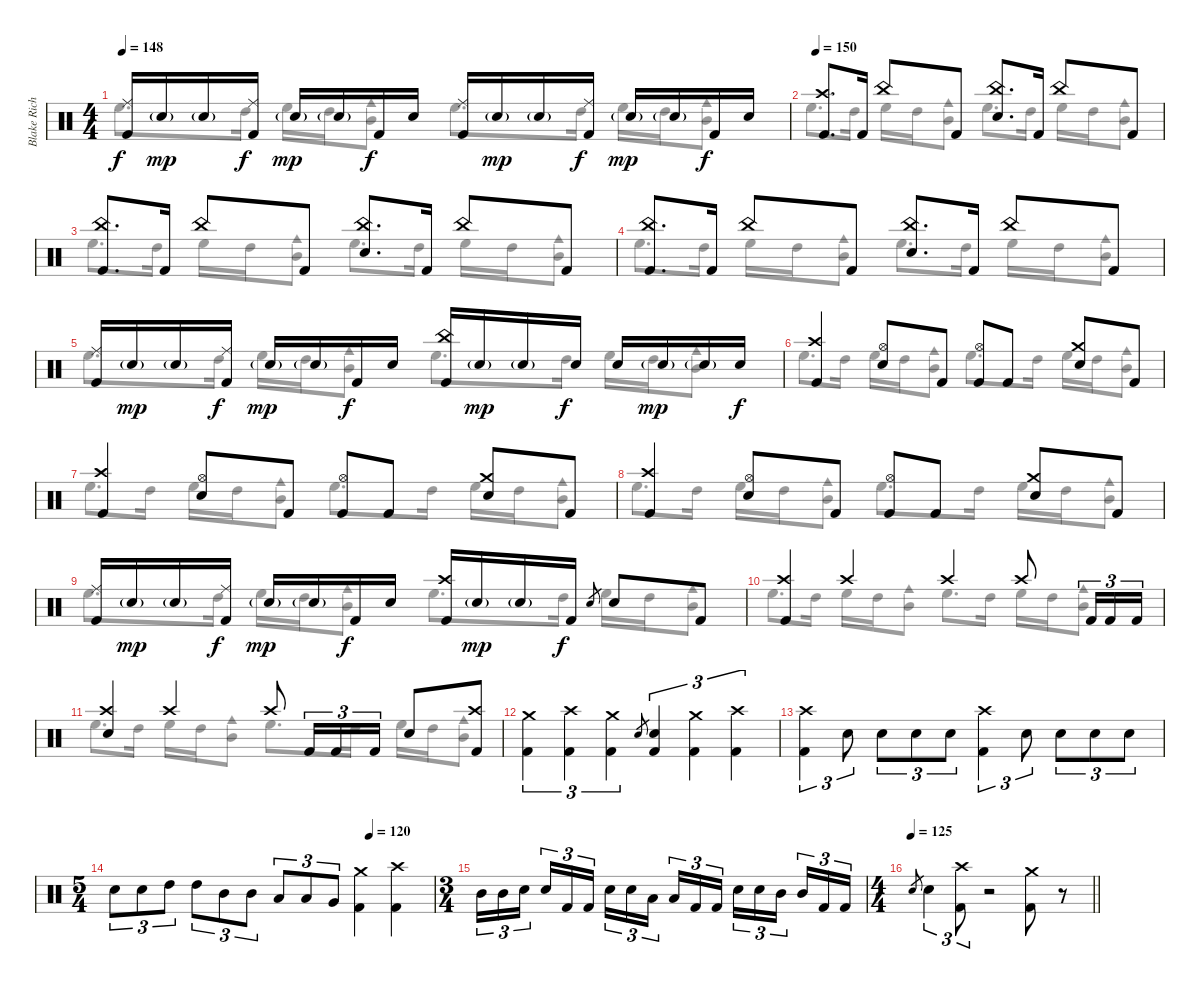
\track ("Blake Richardson" "Blake Rich") {instrument percussion}
\staff {score}
\articulation defaults
\voice
\ts (4 4)
\tempo 148
\clef neutral
\ks c
("Ride (middle)" "Kick (hit) 2").16{dy f} "Electric Snare (hit)"{g}.16{dy mp} "Electric Snare (hit)"{g}.16 ("Ride (middle)" "Kick (hit) 2").16{dy f} "Electric Snare (hit)"{g}.16{dy mp} "Electric Snare (hit)"{g}.16 "Kick (hit) 2".16{dy f} "Electric Snare (hit)".16 ("Ride (middle)" "Kick (hit) 2").16 "Electric Snare (hit)"{g}.16{dy mp} "Electric Snare (hit)"{g}.16 ("Ride (middle)" "Kick (hit) 2").16{dy f} "Electric Snare (hit)"{g}.16{dy mp} "Electric Snare (hit)"{g}.16 "Kick (hit) 2".16{dy f} "Electric Snare (hit)".16 |
\tempo 150
("Crash high (hit)" "Kick (hit) 2").8{d} "Kick (hit) 2".16 "China (hit)".8 "Kick (hit) 2".8 ("China (hit)" "Electric Snare (hit)").8{d} "Kick (hit) 2".16 "China (hit)".8 "Kick (hit) 2".8 |
("China (hit)" "Kick (hit) 2").8{d} "Kick (hit) 2".16 "China (hit)".8 "Kick (hit) 2".8 ("China (hit)" "Electric Snare (hit)").8{d} "Kick (hit) 2".16 "China (hit)".8 "Kick (hit) 2".8 |
("China (hit)" "Kick (hit) 2").8{d} "Kick (hit) 2".16 "China (hit)".8 "Kick (hit) 2".8 ("China (hit)" "Electric Snare (hit)").8{d} "Kick (hit) 2".16 "China (hit)".8 "Kick (hit) 2".8 |
("Ride (middle)" "Kick (hit) 2").16 "Electric Snare (hit)"{g}.16{dy mp} "Electric Snare (hit)"{g}.16 ("Ride (middle)" "Kick (hit) 2").16{dy f} "Electric Snare (hit)"{g}.16{dy mp} "Electric Snare (hit)"{g}.16 "Kick (hit) 2".16{dy f} "Electric Snare (hit)".16 ("China (hit)" "Kick (hit) 2").16 "Electric Snare (hit)"{g}.16{dy mp} "Electric Snare (hit)"{g}.16 "Electric Snare (hit)".16{dy f} "Electric Snare (hit)".16 "Electric Snare (hit)"{g}.16{dy mp} "Electric Snare (hit)"{g}.16 "Electric Snare (hit)".16{dy f} |
("Crash high (hit)" "Kick (hit) 2").4 ("Hi-Hat (open)" "Electric Snare (hit)").8 "Kick (hit) 2".8 ("Hi-Hat (open)" "Kick (hit) 2").8 "Kick (hit) 2".8 ("Crash medium (hit)" "Electric Snare (hit)").8 "Kick (hit) 2".8 |
("Crash high (hit)" "Kick (hit) 2").4 ("Hi-Hat (open)" "Electric Snare (hit)").8 "Kick (hit) 2".8 ("Hi-Hat (open)" "Kick (hit) 2").8 "Kick (hit) 2".8 ("Crash medium (hit)" "Electric Snare (hit)").8 "Kick (hit) 2".8 |
("Crash high (hit)" "Kick (hit) 2").4 ("Hi-Hat (open)" "Electric Snare (hit)").8 "Kick (hit) 2".8 ("Hi-Hat (open)" "Kick (hit) 2").8 "Kick (hit) 2".8 ("Crash medium (hit)" "Electric Snare (hit)").8 "Kick (hit) 2".8 |
("Ride (middle)" "Kick (hit) 2").16 "Electric Snare (hit)"{g}.16{dy mp} "Electric Snare (hit)"{g}.16 ("Ride (middle)" "Kick (hit) 2").16{dy f} "Electric Snare (hit)"{g}.16{dy mp} "Electric Snare (hit)"{g}.16 "Kick (hit) 2".16{dy f} "Electric Snare (hit)".16 ("Crash high (hit)" "Kick (hit) 2").16 "Electric Snare (hit)"{g}.16{dy mp} "Electric Snare (hit)"{g}.16 "Kick (hit) 2".16{dy f} "Electric Snare (hit)".8{gr} "Electric Snare (hit)".8 "Kick (hit) 2".8 |
("Crash high (hit)" "Kick (hit) 2").4 "Crash high (hit)".4 "Crash high (hit)".4 "Crash high (hit)".8 "Kick (hit) 2".16{tu (3 2)} "Kick (hit) 2".16{tu (3 2)} "Kick (hit) 2".16{tu (3 2)} |
("Crash high (hit)" "Electric Snare (hit)").4 "Crash high (hit)".4 "Crash high (hit)".8 "Kick (hit) 2".16{tu (3 2)} "Kick (hit) 2".16{tu (3 2)} "Kick (hit) 2".16{tu (3 2)} "Electric Snare (hit)".8 ("Crash high (hit)" "Kick (hit) 2").8 |
("Crash medium (hit)" "Kick (hit) 2").4{tu (3 2)} ("Crash high (hit)" "Kick (hit) 2").4{tu (3 2)} ("Crash medium (hit)" "Kick (hit) 2").4{tu (3 2)} "Electric Snare (hit)".8{gr} ("Electric Snare (hit)" "Kick (hit) 2").4{tu (3 2)} ("Crash medium (hit)" "Kick (hit) 2").4{tu (3 2)} ("Crash high (hit)" "Kick (hit) 2").4{tu (3 2)} |
("Crash high (hit)" "Kick (hit) 2").4{tu (3 2)} "Electric Snare (hit)".8{tu (3 2)} "Electric Snare (hit)".8{tu (3 2)} "Electric Snare (hit)".8{tu (3 2)} "Electric Snare (hit)".8{tu (3 2)} ("Crash high (hit)" "Kick (hit) 2").4{tu (3 2)} "Electric Snare (hit)".8{tu (3 2)} "Electric Snare (hit)".8{tu (3 2)} "Electric Snare (hit)".8{tu (3 2)} "Electric Snare (hit)".8{tu (3 2)} |
\ts (5 4)
\tempo (120 0.8)
"Electric Snare (hit)".8{tu (3 2)} "Electric Snare (hit)".8{tu (3 2)} "High Tom (hit)".8{tu (3 2)} "High Tom (hit)".8{tu (3 2)} "Mid Tom (hit)".8{tu (3 2)} "Mid Tom (hit)".8{tu (3 2)} "Low Tom (hit)".8{tu (3 2)} "Low Tom (hit)".8{tu (3 2)} "Very Low Tom (hit)".8{tu (3 2)} ("Crash medium (hit)" "Kick (hit) 2").4 ("Crash high (hit)" "Kick (hit) 2").4 |
\ts (3 4)
"Mid Tom (hit)".16{tu (3 2)} "Mid Tom (hit)".16{tu (3 2)} "Electric Snare (hit)".16{tu (3 2) beam splitsecondary} "Electric Snare (hit)".16{tu (3 2)} "Kick (hit) 2".16{tu (3 2)} "Kick (hit) 2".16{tu (3 2)} "Electric Snare (hit)".16{tu (3 2)} "Electric Snare (hit)".16{tu (3 2)} "Low Tom (hit)".16{tu (3 2) beam splitsecondary} "Low Tom (hit)".16{tu (3 2)} "Kick (hit) 2".16{tu (3 2)} "Kick (hit) 2".16{tu (3 2)} "Electric Snare (hit)".16{tu (3 2)} "Electric Snare (hit)".16{tu (3 2)} "Mid Tom (hit)".16{tu (3 2) beam splitsecondary} "Mid Tom (hit)".16{tu (3 2)} "Kick (hit) 2".16{tu (3 2)} "Kick (hit) 2".16{tu (3 2)} |
\ts (4 4)
\tempo 125
\barLineRight lightlight "Electric Snare (hit)".8{gr} "Electric Snare (hit)".4{tu (3 2)}
("Crash high (hit)" "Kick (hit) 2").8{tu (3 2)} r.2{volume 0} ("Crash medium (hit)" "Kick (hit) 2").8{volume 13} r.8{volume 0}
\voice
\clef neutral
\ottava regular
\simile none
\ks c "High Floor Tom (hit)".8{d dy f} "High Tom (hit)".16 "High Floor Tom (hit)".16 "High Tom (hit)".16
("Cowbell medium (hit)" "Mid Tom (hit)").8 "High Floor Tom (hit)".8{d} "High Tom (hit)".16 "High Floor Tom (hit)".16 "High Tom (hit)".16 ("Cowbell medium (hit)" "Mid Tom (hit)").8 |
"High Floor Tom (hit)".8{d} "High Tom (hit)".16 "High Floor Tom (hit)".16 "High Tom (hit)".16 ("Cowbell medium (hit)" "Mid Tom (hit)").8 "High Floor Tom (hit)".8{d} "High Tom (hit)".16 "High Floor Tom (hit)".16 "High Tom (hit)".16 ("Cowbell medium (hit)" "Mid Tom (hit)").8 |
"High Floor Tom (hit)".8{d} "High Tom (hit)".16 "High Floor Tom (hit)".16 "High Tom (hit)".16 ("Cowbell medium (hit)" "Mid Tom (hit)").8 "High Floor Tom (hit)".8{d} "High Tom (hit)".16 "High Floor Tom (hit)".16 "High Tom (hit)".16 ("Cowbell medium (hit)" "Mid Tom (hit)").8 |
"High Floor Tom (hit)".8{d} "High Tom (hit)".16 "High Floor Tom (hit)".16 "High Tom (hit)".16 ("Cowbell medium (hit)" "Mid Tom (hit)").8 "High Floor Tom (hit)".8{d} "High Tom (hit)".16 "High Floor Tom (hit)".16 "High Tom (hit)".16 ("Cowbell medium (hit)" "Mid Tom (hit)").8 |
"High Floor Tom (hit)".8{d} "High Tom (hit)".16 "High Floor Tom (hit)".16 "High Tom (hit)".16 ("Cowbell medium (hit)" "Mid Tom (hit)").8 "High Floor Tom (hit)".8{d} "High Tom (hit)".16 "High Floor Tom (hit)".16 "High Tom (hit)".16 ("Cowbell medium (hit)" "Mid Tom (hit)").8 |
"High Floor Tom (hit)".8{d} "High Tom (hit)".16 "High Floor Tom (hit)".16 "High Tom (hit)".16 ("Cowbell medium (hit)" "Mid Tom (hit)").8 "High Floor Tom (hit)".8{d} "High Tom (hit)".16 "High Floor Tom (hit)".16 "High Tom (hit)".16 ("Cowbell medium (hit)" "Mid Tom (hit)").8 |
"High Floor Tom (hit)".8{d} "High Tom (hit)".16 "High Floor Tom (hit)".16 "High Tom (hit)".16 ("Cowbell medium (hit)" "Mid Tom (hit)").8 "High Floor Tom (hit)".8{d} "High Tom (hit)".16 "High Floor Tom (hit)".16 "High Tom (hit)".16 ("Cowbell medium (hit)" "Mid Tom (hit)").8 |
"High Floor Tom (hit)".8{d} "High Tom (hit)".16 "High Floor Tom (hit)".16 "High Tom (hit)".16 ("Cowbell medium (hit)" "Mid Tom (hit)").8 "High Floor Tom (hit)".8{d} "High Tom (hit)".16 "High Floor Tom (hit)".16 "High Tom (hit)".16 ("Cowbell medium (hit)" "Mid Tom (hit)").8 |
"High Floor Tom (hit)".8{d} "High Tom (hit)".16 "High Floor Tom (hit)".16 "High Tom (hit)".16 ("Cowbell medium (hit)" "Mid Tom (hit)").8 "High Floor Tom (hit)".8{d} "High Tom (hit)".16 "High Floor Tom (hit)".16 "High Tom (hit)".16 ("Cowbell medium (hit)" "Mid Tom (hit)").8 |
"High Floor Tom (hit)".8{d} "High Tom (hit)".16 "High Floor Tom (hit)".16 "High Tom (hit)".16 ("Cowbell medium (hit)" "Mid Tom (hit)").8 "High Floor Tom (hit)".8{d} "High Tom (hit)".16 "High Floor Tom (hit)".16 "High Tom (hit)".16 ("Cowbell medium (hit)" "Mid Tom (hit)").8 |
"High Floor Tom (hit)".8{d} "High Tom (hit)".16 "High Floor Tom (hit)".16 "High Tom (hit)".16 ("Cowbell medium (hit)" "Mid Tom (hit)").8 "High Floor Tom (hit)".8{d} "High Tom (hit)".16 "High Floor Tom (hit)".16 "High Tom (hit)".16 ("Cowbell medium (hit)" "Mid Tom (hit)").8 |
|
|
|
|
\barLineRight lightlight
